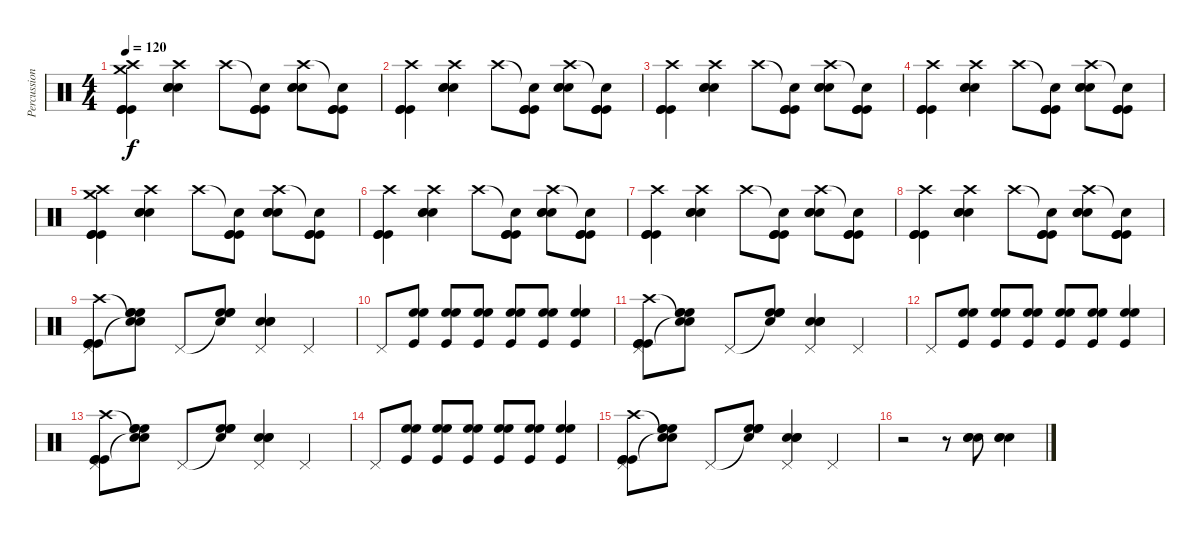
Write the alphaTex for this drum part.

\track ("Percussions" "Percussion") {instrument percussion}
\staff {score}
\articulation defaults
\ts (4 4)
\tempo 120
\clef neutral
\ks c
("Crash high (hit)" "Crash medium (hit)" "Kick (hit)" "Kick (hit)" "Kick (hit)").4{dy f} ("Crash high (hit)" "Snare (hit) 2" "Snare (hit) 2" "Snare (hit) 2").4 "Crash high (hit)".8 ("Snare (hit)"{t} "Kick (hit)" "Kick (hit)" "Kick (hit)").8 ("Crash high (hit)" "Snare (hit) 2" "Snare (hit) 2" "Snare (hit) 2").8 ("Snare (hit)"{t} "Kick (hit)" "Kick (hit)" "Kick (hit)").8 |
("Crash high (hit)" "Kick (hit)" "Kick (hit)" "Kick (hit)").4 ("Crash high (hit)" "Snare (hit) 2" "Snare (hit) 2" "Snare (hit) 2").4 "Crash high (hit)".8 ("Snare (hit)"{t} "Kick (hit)" "Kick (hit)" "Kick (hit)").8 ("Crash high (hit)" "Snare (hit) 2" "Snare (hit) 2" "Snare (hit) 2").8 ("Snare (hit)"{t} "Kick (hit)" "Kick (hit)" "Kick (hit)").8 |
("Crash high (hit)" "Kick (hit)" "Kick (hit)" "Kick (hit)").4 ("Crash high (hit)" "Snare (hit) 2" "Snare (hit) 2" "Snare (hit) 2").4 "Crash high (hit)".8 ("Snare (hit)"{t} "Kick (hit)" "Kick (hit)" "Kick (hit)").8 ("Crash high (hit)" "Snare (hit) 2" "Snare (hit) 2" "Snare (hit) 2").8 ("Snare (hit)"{t} "Kick (hit)" "Kick (hit)" "Kick (hit)").8 |
("Crash high (hit)" "Kick (hit)" "Kick (hit)" "Kick (hit)").4 ("Crash high (hit)" "Snare (hit) 2" "Snare (hit) 2" "Snare (hit) 2").4 "Crash high (hit)".8 ("Snare (hit)"{t} "Kick (hit)" "Kick (hit)" "Kick (hit)").8 ("Crash high (hit)" "Snare (hit) 2" "Snare (hit) 2" "Snare (hit) 2").8 ("Snare (hit)"{t} "Kick (hit)" "Kick (hit)" "Kick (hit)").8 |
("Crash high (hit)" "Crash medium (hit)" "Kick (hit)" "Kick (hit)" "Kick (hit)").4 ("Crash high (hit)" "Snare (hit) 2" "Snare (hit) 2" "Snare (hit) 2").4 "Crash high (hit)".8 ("Snare (hit)"{t} "Kick (hit)" "Kick (hit)" "Kick (hit)").8 ("Crash high (hit)" "Snare (hit) 2" "Snare (hit) 2" "Snare (hit) 2").8 ("Snare (hit)"{t} "Kick (hit)" "Kick (hit)" "Kick (hit)").8 |
("Crash high (hit)" "Kick (hit)" "Kick (hit)" "Kick (hit)").4 ("Crash high (hit)" "Snare (hit) 2" "Snare (hit) 2" "Snare (hit) 2").4 "Crash high (hit)".8 ("Snare (hit)"{t} "Kick (hit)" "Kick (hit)" "Kick (hit)").8 ("Crash high (hit)" "Snare (hit) 2" "Snare (hit) 2" "Snare (hit) 2").8 ("Snare (hit)"{t} "Kick (hit)" "Kick (hit)" "Kick (hit)").8 |
("Crash high (hit)" "Kick (hit)" "Kick (hit)" "Kick (hit)").4 ("Crash high (hit)" "Snare (hit) 2" "Snare (hit) 2" "Snare (hit) 2").4 "Crash high (hit)".8 ("Snare (hit)"{t} "Kick (hit)" "Kick (hit)" "Kick (hit)").8 ("Crash high (hit)" "Snare (hit) 2" "Snare (hit) 2" "Snare (hit) 2").8 ("Snare (hit)"{t} "Kick (hit)" "Kick (hit)" "Kick (hit)").8 |
("Crash high (hit)" "Kick (hit)" "Kick (hit)" "Kick (hit)").4 ("Crash high (hit)" "Snare (hit) 2" "Snare (hit) 2" "Snare (hit) 2").4 "Crash high (hit)".8 ("Snare (hit)"{t} "Kick (hit)" "Kick (hit)" "Kick (hit)").8 ("Crash high (hit)" "Snare (hit) 2" "Snare (hit) 2" "Snare (hit) 2").8 ("Snare (hit)"{t} "Kick (hit)" "Kick (hit)" "Kick (hit)").8 |
("Pedal Hi-Hat (hit)" "Crash high (hit)" "Kick (hit)" "Kick (hit)" "Kick (hit)").8 ("Snare (hit)"{t} "Snare (hit)"{t} "High Floor Tom (hit)" "High Floor Tom (hit)" "High Floor Tom (hit)").8 "Pedal Hi-Hat (hit)".8 ("Snare (hit)"{t} "High Floor Tom (hit)" "High Floor Tom (hit)" "High Floor Tom (hit)").8 ("Pedal Hi-Hat (hit)" "Snare (hit) 2" "Snare (hit) 2" "Snare (hit) 2").4 "Pedal Hi-Hat (hit)".4 |
"Pedal Hi-Hat (hit)".8 ("High Floor Tom (hit)" "High Floor Tom (hit)" "Kick (hit)").8 ("High Floor Tom (hit)" "High Floor Tom (hit)" "Kick (hit)").8 ("High Floor Tom (hit)" "High Floor Tom (hit)" "Kick (hit)").8 ("High Floor Tom (hit)" "High Floor Tom (hit)" "Kick (hit)").8 ("High Floor Tom (hit)" "High Floor Tom (hit)" "Kick (hit)").8 ("High Floor Tom (hit)" "High Floor Tom (hit)" "Kick (hit)").4 |
("Pedal Hi-Hat (hit)" "Crash high (hit)" "Kick (hit)" "Kick (hit)" "Kick (hit)").8 ("Snare (hit)"{t} "Snare (hit)"{t} "High Floor Tom (hit)" "High Floor Tom (hit)" "High Floor Tom (hit)").8 "Pedal Hi-Hat (hit)".8 ("Snare (hit)"{t} "High Floor Tom (hit)" "High Floor Tom (hit)" "High Floor Tom (hit)").8 ("Pedal Hi-Hat (hit)" "Snare (hit) 2" "Snare (hit) 2" "Snare (hit) 2").4 "Pedal Hi-Hat (hit)".4 |
"Pedal Hi-Hat (hit)".8 ("High Floor Tom (hit)" "High Floor Tom (hit)" "Kick (hit)").8 ("High Floor Tom (hit)" "High Floor Tom (hit)" "Kick (hit)").8 ("High Floor Tom (hit)" "High Floor Tom (hit)" "Kick (hit)").8 ("High Floor Tom (hit)" "High Floor Tom (hit)" "Kick (hit)").8 ("High Floor Tom (hit)" "High Floor Tom (hit)" "Kick (hit)").8 ("High Floor Tom (hit)" "High Floor Tom (hit)" "Kick (hit)").4 |
("Pedal Hi-Hat (hit)" "Crash high (hit)" "Kick (hit)" "Kick (hit)" "Kick (hit)").8 ("Snare (hit)"{t} "Snare (hit)"{t} "High Floor Tom (hit)" "High Floor Tom (hit)" "High Floor Tom (hit)").8 "Pedal Hi-Hat (hit)".8 ("Snare (hit)"{t} "High Floor Tom (hit)" "High Floor Tom (hit)" "High Floor Tom (hit)").8 ("Pedal Hi-Hat (hit)" "Snare (hit) 2" "Snare (hit) 2" "Snare (hit) 2").4 "Pedal Hi-Hat (hit)".4 |
"Pedal Hi-Hat (hit)".8 ("High Floor Tom (hit)" "High Floor Tom (hit)" "Kick (hit)").8 ("High Floor Tom (hit)" "High Floor Tom (hit)" "Kick (hit)").8 ("High Floor Tom (hit)" "High Floor Tom (hit)" "Kick (hit)").8 ("High Floor Tom (hit)" "High Floor Tom (hit)" "Kick (hit)").8 ("High Floor Tom (hit)" "High Floor Tom (hit)" "Kick (hit)").8 ("High Floor Tom (hit)" "High Floor Tom (hit)" "Kick (hit)").4 |
("Pedal Hi-Hat (hit)" "Crash high (hit)" "Kick (hit)" "Kick (hit)" "Kick (hit)").8 ("Snare (hit)"{t} "Snare (hit)"{t} "High Floor Tom (hit)" "High Floor Tom (hit)" "High Floor Tom (hit)").8 "Pedal Hi-Hat (hit)".8 ("Snare (hit)"{t} "High Floor Tom (hit)" "High Floor Tom (hit)" "High Floor Tom (hit)").8 ("Pedal Hi-Hat (hit)" "Snare (hit) 2" "Snare (hit) 2" "Snare (hit) 2").4 "Pedal Hi-Hat (hit)".4 |
r.2 r.8 ("Snare (hit) 2" "Snare (hit) 2" "Snare (hit) 2").8 ("Snare (hit) 2" "Snare (hit) 2" "Snare (hit) 2").4
